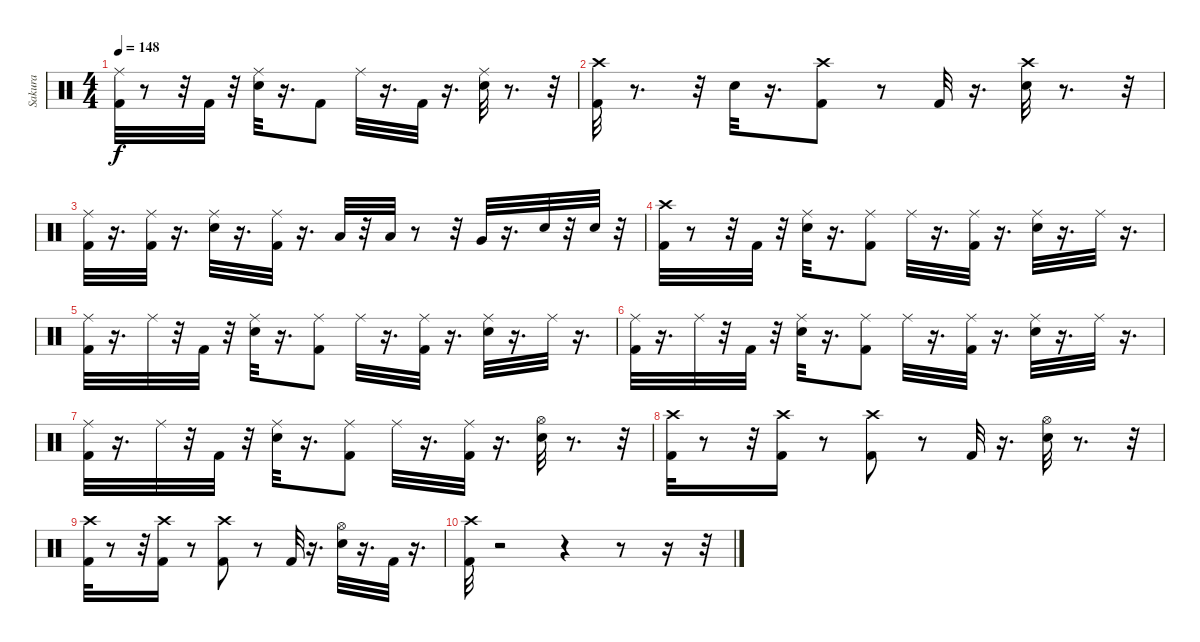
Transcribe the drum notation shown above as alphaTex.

\track ("Sakura" "Sakura") {instrument percussion}
\staff {score}
\articulation defaults
\ts (4 4)
\tempo 148
\clef neutral
\ks c
("Ride (middle)" "Kick (hit) 2").32{dy f} r.8 r.32 "Kick (hit) 2".32 r.32 ("Ride (middle)" "Snare (hit) 2").32 r.16{d} "Kick (hit) 2".8 "Ride (middle)".32 r.16{d} "Kick (hit) 2".32 r.16{d} ("Ride (middle)" "Snare (hit) 2").32 r.8{d} r.32 |
("Crash high (hit)" "Kick (hit) 2").32 r.8{d} r.32 "Snare (hit) 2".32 r.16{d} ("Crash high (hit)" "Kick (hit) 2").8 r.8 "Kick (hit) 2".32 r.16{d} ("Crash high (hit)" "Snare (hit) 2").32 r.8{d} r.32 |
("Ride (middle)" "Kick (hit) 2").32 r.16{d} ("Ride (middle)" "Kick (hit) 2").32 r.16{d} ("Ride (middle)" "Snare (hit) 2").32 r.16{d} ("Ride (middle)" "Kick (hit) 2").32 r.16{d} "Low Tom (hit)".32 r.32 "Low Tom (hit)".32 r.8 r.32 "Very Low Tom (hit)".32 r.16{d} "Snare (hit) 2".32 r.32 "Snare (hit) 2".32 r.32 |
("Crash high (hit)" "Kick (hit) 2").32 r.8 r.32 "Kick (hit) 2".32 r.32 ("Ride (middle)" "Snare (hit) 2").32 r.16{d} ("Ride (middle)" "Kick (hit) 2").8 "Ride (middle)".32 r.16{d} ("Ride (middle)" "Kick (hit) 2").32 r.16{d} ("Ride (middle)" "Snare (hit) 2").32 r.16{d} "Ride (middle)".32 r.16{d} |
("Kick (hit) 2" "Ride (middle)").32 r.16{d} "Ride (middle)".32 r.32 "Kick (hit) 2".32 r.32 ("Ride (middle)" "Snare (hit) 2").32 r.16{d} ("Ride (middle)" "Kick (hit) 2").8 "Ride (middle)".32 r.16{d} ("Ride (middle)" "Kick (hit) 2").32 r.16{d} ("Ride (middle)" "Snare (hit) 2").32 r.16{d} "Ride (middle)".32 r.16{d} |
("Kick (hit) 2" "Ride (middle)").32 r.16{d} "Ride (middle)".32 r.32 "Kick (hit) 2".32 r.32 ("Ride (middle)" "Snare (hit) 2").32 r.16{d} ("Ride (middle)" "Kick (hit) 2").8 "Ride (middle)".32 r.16{d} ("Ride (middle)" "Kick (hit) 2").32 r.16{d} ("Ride (middle)" "Snare (hit) 2").32 r.16{d} "Ride (middle)".32 r.16{d} |
("Kick (hit) 2" "Ride (middle)").32 r.16{d} "Ride (middle)".32 r.32 "Kick (hit) 2".32 r.32 ("Ride (middle)" "Snare (hit) 2").32 r.16{d} ("Ride (middle)" "Kick (hit) 2").8 "Ride (middle)".32 r.16{d} ("Ride (middle)" "Kick (hit) 2").32 r.16{d} ("Hi-Hat (open)" "Snare (hit) 2").32 r.8{d} r.32 |
("Crash high (hit)" "Kick (hit) 2").32 r.8 r.32 ("Crash high (hit)" "Kick (hit) 2").16 r.8 ("Kick (hit) 2" "Crash high (hit)").8 r.8 "Kick (hit) 2".32 r.16{d} ("Snare (hit) 2" "Hi-Hat (open)").32 r.8{d} r.32 |
("Crash high (hit)" "Kick (hit) 2").32 r.8 r.32 ("Crash high (hit)" "Kick (hit) 2").16 r.8 ("Kick (hit) 2" "Crash high (hit)").8 r.8 "Kick (hit) 2".32 r.16{d} ("Snare (hit) 2" "Hi-Hat (open)").32 r.16{d} "Kick (hit) 2".32 r.16{d} |
("Crash high (hit)" "Kick (hit) 2").32 r.2 r.4 r.8 r.16 r.32
